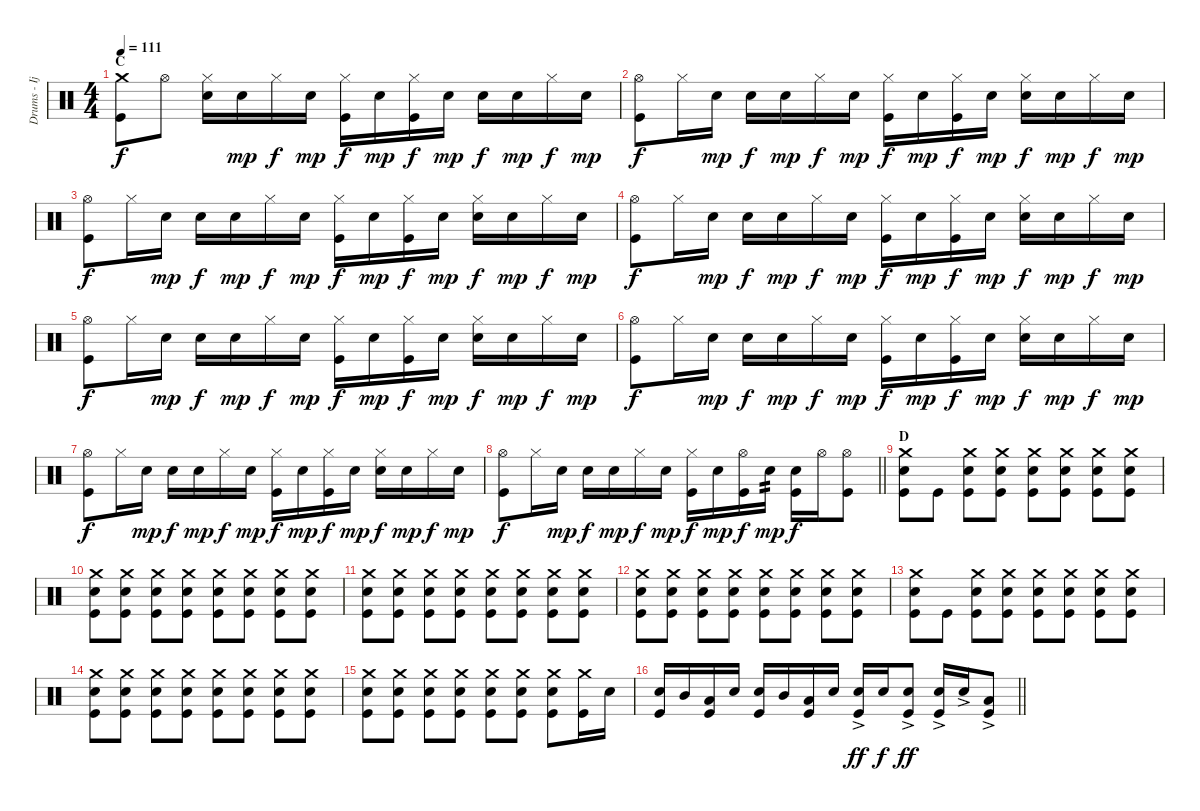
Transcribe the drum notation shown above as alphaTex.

\track ("Drums - Ijichi" "Drums - Ij") {instrument percussion}
\staff {score}
\articulation defaults
\ts (4 4)
\section ("" "C")
\tempo 111
\clef neutral
\ks c
("Crash medium (hit)" "Kick (hit)").8{dy f} "Hi-Hat (open)".8 ("Hi-Hat (closed)" "Electric Snare (hit)").16 "Electric Snare (hit)".16{dy mp} "Hi-Hat (closed)".16{dy f} "Electric Snare (hit)".16{dy mp} ("Hi-Hat (closed)" "Kick (hit)").16{dy f} "Electric Snare (hit)".16{dy mp} ("Hi-Hat (closed)" "Kick (hit)").16{dy f} "Electric Snare (hit)".16{dy mp} "Electric Snare (hit)".16{dy f} "Electric Snare (hit)".16{dy mp} "Hi-Hat (closed)".16{dy f} "Electric Snare (hit)".16{dy mp} |
("Hi-Hat (open)" "Kick (hit)").8{dy f} "Hi-Hat (closed)".16 "Electric Snare (hit)".16{dy mp} "Electric Snare (hit)".16{dy f} "Electric Snare (hit)".16{dy mp} "Hi-Hat (closed)".16{dy f} "Electric Snare (hit)".16{dy mp} ("Hi-Hat (closed)" "Kick (hit)").16{dy f} "Electric Snare (hit)".16{dy mp} ("Hi-Hat (closed)" "Kick (hit)").16{dy f} "Electric Snare (hit)".16{dy mp} ("Hi-Hat (closed)" "Electric Snare (hit)").16{dy f} "Electric Snare (hit)".16{dy mp} "Hi-Hat (closed)".16{dy f} "Electric Snare (hit)".16{dy mp} |
("Hi-Hat (open)" "Kick (hit)").8{dy f} "Hi-Hat (closed)".16 "Electric Snare (hit)".16{dy mp} "Electric Snare (hit)".16{dy f} "Electric Snare (hit)".16{dy mp} "Hi-Hat (closed)".16{dy f} "Electric Snare (hit)".16{dy mp} ("Hi-Hat (closed)" "Kick (hit)").16{dy f} "Electric Snare (hit)".16{dy mp} ("Hi-Hat (closed)" "Kick (hit)").16{dy f} "Electric Snare (hit)".16{dy mp} ("Hi-Hat (closed)" "Electric Snare (hit)").16{dy f} "Electric Snare (hit)".16{dy mp} "Hi-Hat (closed)".16{dy f} "Electric Snare (hit)".16{dy mp} |
("Hi-Hat (open)" "Kick (hit)").8{dy f} "Hi-Hat (closed)".16 "Electric Snare (hit)".16{dy mp} "Electric Snare (hit)".16{dy f} "Electric Snare (hit)".16{dy mp} "Hi-Hat (closed)".16{dy f} "Electric Snare (hit)".16{dy mp} ("Hi-Hat (closed)" "Kick (hit)").16{dy f} "Electric Snare (hit)".16{dy mp} ("Hi-Hat (closed)" "Kick (hit)").16{dy f} "Electric Snare (hit)".16{dy mp} ("Hi-Hat (closed)" "Electric Snare (hit)").16{dy f} "Electric Snare (hit)".16{dy mp} "Hi-Hat (closed)".16{dy f} "Electric Snare (hit)".16{dy mp} |
("Hi-Hat (open)" "Kick (hit)").8{dy f} "Hi-Hat (closed)".16 "Electric Snare (hit)".16{dy mp} "Electric Snare (hit)".16{dy f} "Electric Snare (hit)".16{dy mp} "Hi-Hat (closed)".16{dy f} "Electric Snare (hit)".16{dy mp} ("Hi-Hat (closed)" "Kick (hit)").16{dy f} "Electric Snare (hit)".16{dy mp} ("Hi-Hat (closed)" "Kick (hit)").16{dy f} "Electric Snare (hit)".16{dy mp} ("Hi-Hat (closed)" "Electric Snare (hit)").16{dy f} "Electric Snare (hit)".16{dy mp} "Hi-Hat (closed)".16{dy f} "Electric Snare (hit)".16{dy mp} |
("Hi-Hat (open)" "Kick (hit)").8{dy f} "Hi-Hat (closed)".16 "Electric Snare (hit)".16{dy mp} "Electric Snare (hit)".16{dy f} "Electric Snare (hit)".16{dy mp} "Hi-Hat (closed)".16{dy f} "Electric Snare (hit)".16{dy mp} ("Hi-Hat (closed)" "Kick (hit)").16{dy f} "Electric Snare (hit)".16{dy mp} ("Hi-Hat (closed)" "Kick (hit)").16{dy f} "Electric Snare (hit)".16{dy mp} ("Hi-Hat (closed)" "Electric Snare (hit)").16{dy f} "Electric Snare (hit)".16{dy mp} "Hi-Hat (closed)".16{dy f} "Electric Snare (hit)".16{dy mp} |
("Hi-Hat (open)" "Kick (hit)").8{dy f} "Hi-Hat (closed)".16 "Electric Snare (hit)".16{dy mp} "Electric Snare (hit)".16{dy f} "Electric Snare (hit)".16{dy mp} "Hi-Hat (closed)".16{dy f} "Electric Snare (hit)".16{dy mp} ("Hi-Hat (closed)" "Kick (hit)").16{dy f} "Electric Snare (hit)".16{dy mp} ("Hi-Hat (closed)" "Kick (hit)").16{dy f} "Electric Snare (hit)".16{dy mp} ("Hi-Hat (closed)" "Electric Snare (hit)").16{dy f} "Electric Snare (hit)".16{dy mp} "Hi-Hat (closed)".16{dy f} "Electric Snare (hit)".16{dy mp} |
\barLineRight lightlight
("Hi-Hat (open)" "Kick (hit)").8{dy f} "Hi-Hat (closed)".16 "Electric Snare (hit)".16{dy mp} "Electric Snare (hit)".16{dy f} "Electric Snare (hit)".16{dy mp} "Hi-Hat (closed)".16{dy f} "Electric Snare (hit)".16{dy mp} ("Hi-Hat (closed)" "Kick (hit)").16{dy f} "Electric Snare (hit)".16{dy mp} ("Hi-Hat (open)" "Kick (hit)").16{dy f} "Electric Snare (hit)".16{tp 2 dy mp} ("Electric Snare (hit)" "Kick (hit)").16{dy f} "Hi-Hat (open)".16 ("Hi-Hat (open)" "Kick (hit)").8 |
\section ("" "D")
("Crash medium (hit)" "Electric Snare (hit)" "Kick (hit)").8 "Kick (hit)".8 ("Crash medium (hit)" "Electric Snare (hit)" "Kick (hit)").8 ("Crash medium (hit)" "Electric Snare (hit)" "Kick (hit)").8 ("Crash medium (hit)" "Electric Snare (hit)" "Kick (hit)").8 ("Crash medium (hit)" "Electric Snare (hit)" "Kick (hit)").8 ("Crash medium (hit)" "Electric Snare (hit)" "Kick (hit)").8 ("Crash medium (hit)" "Electric Snare (hit)" "Kick (hit)").8 |
("Crash medium (hit)" "Electric Snare (hit)" "Kick (hit)").8 ("Crash medium (hit)" "Electric Snare (hit)" "Kick (hit)").8 ("Crash medium (hit)" "Electric Snare (hit)" "Kick (hit)").8 ("Crash medium (hit)" "Electric Snare (hit)" "Kick (hit)").8 ("Crash medium (hit)" "Electric Snare (hit)" "Kick (hit)").8 ("Crash medium (hit)" "Electric Snare (hit)" "Kick (hit)").8 ("Crash medium (hit)" "Electric Snare (hit)" "Kick (hit)").8 ("Crash medium (hit)" "Electric Snare (hit)" "Kick (hit)").8 |
("Crash medium (hit)" "Electric Snare (hit)" "Kick (hit)").8 ("Crash medium (hit)" "Electric Snare (hit)" "Kick (hit)").8 ("Crash medium (hit)" "Electric Snare (hit)" "Kick (hit)").8 ("Crash medium (hit)" "Electric Snare (hit)" "Kick (hit)").8 ("Crash medium (hit)" "Electric Snare (hit)" "Kick (hit)").8 ("Crash medium (hit)" "Electric Snare (hit)" "Kick (hit)").8 ("Crash medium (hit)" "Electric Snare (hit)" "Kick (hit)").8 ("Crash medium (hit)" "Electric Snare (hit)" "Kick (hit)").8 |
("Crash medium (hit)" "Electric Snare (hit)" "Kick (hit)").8 ("Crash medium (hit)" "Electric Snare (hit)" "Kick (hit)").8 ("Crash medium (hit)" "Electric Snare (hit)" "Kick (hit)").8 ("Crash medium (hit)" "Electric Snare (hit)" "Kick (hit)").8 ("Crash medium (hit)" "Electric Snare (hit)" "Kick (hit)").8 ("Crash medium (hit)" "Electric Snare (hit)" "Kick (hit)").8 ("Crash medium (hit)" "Electric Snare (hit)" "Kick (hit)").8 ("Crash medium (hit)" "Electric Snare (hit)" "Kick (hit)").8 |
("Crash medium (hit)" "Electric Snare (hit)" "Kick (hit)").8 "Kick (hit)".8 ("Crash medium (hit)" "Electric Snare (hit)" "Kick (hit)").8 ("Crash medium (hit)" "Electric Snare (hit)" "Kick (hit)").8 ("Crash medium (hit)" "Electric Snare (hit)" "Kick (hit)").8 ("Crash medium (hit)" "Electric Snare (hit)" "Kick (hit)").8 ("Crash medium (hit)" "Electric Snare (hit)" "Kick (hit)").8 ("Crash medium (hit)" "Electric Snare (hit)" "Kick (hit)").8 |
("Crash medium (hit)" "Electric Snare (hit)" "Kick (hit)").8 ("Crash medium (hit)" "Electric Snare (hit)" "Kick (hit)").8 ("Crash medium (hit)" "Electric Snare (hit)" "Kick (hit)").8 ("Crash medium (hit)" "Electric Snare (hit)" "Kick (hit)").8 ("Crash medium (hit)" "Electric Snare (hit)" "Kick (hit)").8 ("Crash medium (hit)" "Electric Snare (hit)" "Kick (hit)").8 ("Crash medium (hit)" "Electric Snare (hit)" "Kick (hit)").8 ("Crash medium (hit)" "Electric Snare (hit)" "Kick (hit)").8 |
("Crash medium (hit)" "Electric Snare (hit)" "Kick (hit)").8 ("Crash medium (hit)" "Electric Snare (hit)" "Kick (hit)").8 ("Crash medium (hit)" "Electric Snare (hit)" "Kick (hit)").8 ("Crash medium (hit)" "Electric Snare (hit)" "Kick (hit)").8 ("Crash medium (hit)" "Electric Snare (hit)" "Kick (hit)").8 ("Crash medium (hit)" "Electric Snare (hit)" "Kick (hit)").8 ("Crash medium (hit)" "Electric Snare (hit)" "Kick (hit)").8 ("Crash medium (hit)" "Kick (hit)").16 "Electric Snare (hit)".16 |
\barLineRight lightlight
("Electric Snare (hit)" "Kick (hit)").16 "Mid Tom (hit)".16 ("Low Tom (hit)" "Kick (hit)").16 "Electric Snare (hit)".16 ("Electric Snare (hit)" "Kick (hit)").16 "Mid Tom (hit)".16 ("Low Tom (hit)" "Kick (hit)").16 "Electric Snare (hit)".16 ("Electric Snare (hit)"{ac} "Kick (hit)").16{dy ff} "Electric Snare (hit)".16{dy f} ("Electric Snare (hit)"{ac} "Kick (hit)").8{dy ff} ("Electric Snare (hit)"{ac} "Kick (hit)").16 "Electric Snare (hit)"{ac}.16 ("Low Tom (hit)"{ac} "Kick (hit)").8
